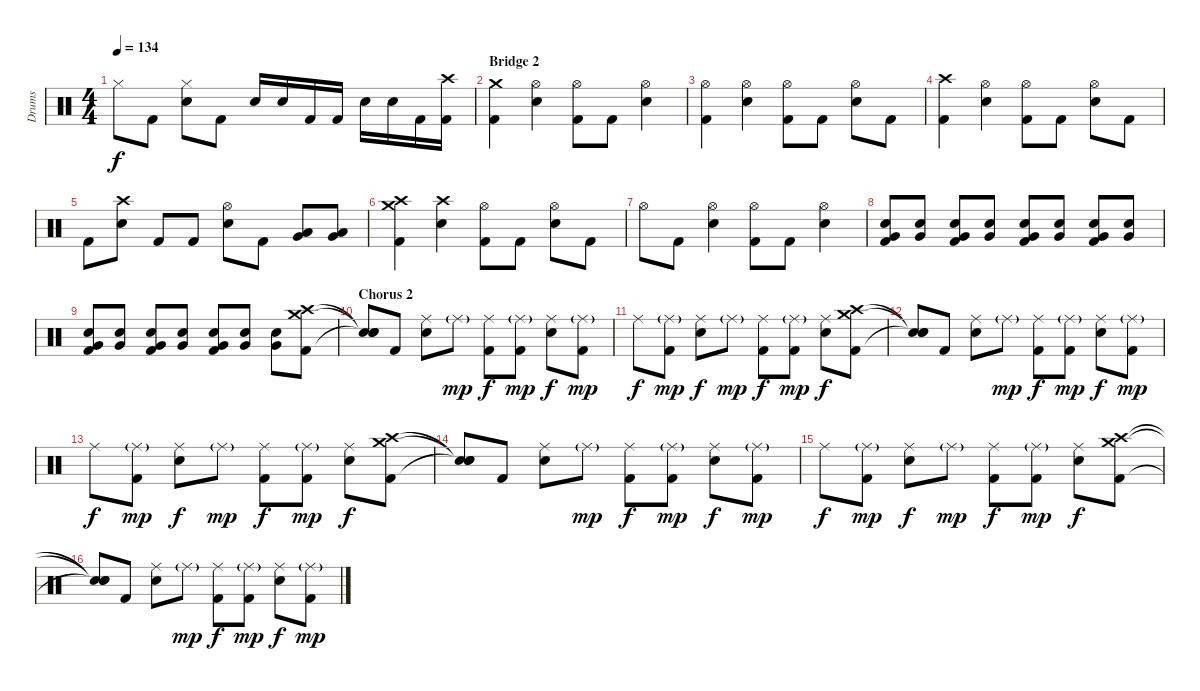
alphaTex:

\track ("Drums" "Drums") {instrument percussion}
\staff {score}
\articulation defaults
\ts (4 4)
\tempo 134
\clef neutral
\ks c "Hi-Hat (closed)".8{dy f} "Kick (hit) 2".8
("Hi-Hat (closed)" "Snare (hit) 2").8 "Kick (hit) 2".8 "Snare (hit) 2".16 "Snare (hit) 2".16 "Kick (hit) 2".16 "Kick (hit) 2".16 "Snare (hit) 2".16 "Snare (hit) 2".16 "Kick (hit) 2".16 ("Crash high (hit)" "Kick (hit) 2").16 |
\section ("" "Bridge 2")
("Crash medium (hit)" "Kick (hit) 2").4 ("Hi-Hat (open)" "Snare (hit) 2").4 ("Hi-Hat (open)" "Kick (hit) 2").8 "Kick (hit) 2".8 ("Hi-Hat (open)" "Snare (hit) 2").4 |
("Hi-Hat (open)" "Kick (hit) 2").4 ("Hi-Hat (open)" "Snare (hit) 2").4 ("Hi-Hat (open)" "Kick (hit) 2").8 "Kick (hit) 2".8 ("Hi-Hat (open)" "Snare (hit) 2").8 "Kick (hit) 2".8 |
("Crash high (hit)" "Kick (hit) 2").4 ("Hi-Hat (open)" "Snare (hit) 2").4 ("Hi-Hat (open)" "Kick (hit) 2").8 "Kick (hit) 2".8 ("Hi-Hat (open)" "Snare (hit) 2").8 "Kick (hit) 2".8 |
"Kick (hit) 2".8 ("Crash high (hit)" "Snare (hit) 2").8 "Kick (hit) 2".8 "Kick (hit) 2".8 ("Hi-Hat (open)" "Snare (hit) 2").8 "Kick (hit) 2".8 ("Low Tom (hit)" "Very Low Tom (hit)").8 ("Low Tom (hit)" "Very Low Tom (hit)").8 |
("Crash medium (hit)" "Crash high (hit)" "Kick (hit) 2").4 ("Crash high (hit)" "Snare (hit) 2").4 ("Hi-Hat (open)" "Kick (hit) 2").8 "Kick (hit) 2".8 ("Hi-Hat (open)" "Snare (hit) 2").8 "Kick (hit) 2".8 |
"Hi-Hat (open)".8 "Kick (hit) 2".8 ("Hi-Hat (open)" "Snare (hit) 2").4 ("Hi-Hat (open)" "Kick (hit) 2").8 "Kick (hit) 2".8 ("Hi-Hat (open)" "Snare (hit) 2").4 |
("Very Low Tom (hit)" "Snare (hit) 2" "Kick (hit) 2").8{volume 10} ("Very Low Tom (hit)" "Snare (hit) 2").8{volume 14} ("Very Low Tom (hit)" "Snare (hit) 2" "Kick (hit) 2").8 ("Very Low Tom (hit)" "Snare (hit) 2").8 ("Very Low Tom (hit)" "Snare (hit) 2" "Kick (hit) 2").8 ("Very Low Tom (hit)" "Snare (hit) 2").8 ("Very Low Tom (hit)" "Snare (hit) 2" "Kick (hit) 2").8 ("Very Low Tom (hit)" "Snare (hit) 2").8 |
("Very Low Tom (hit)" "Snare (hit) 2" "Kick (hit) 2").8 ("Very Low Tom (hit)" "Snare (hit) 2").8 ("Very Low Tom (hit)" "Snare (hit) 2" "Kick (hit) 2").8 ("Very Low Tom (hit)" "Snare (hit) 2").8 ("Very Low Tom (hit)" "Snare (hit) 2" "Kick (hit) 2").8 ("Very Low Tom (hit)" "Snare (hit) 2").8 ("Very Low Tom (hit)" "Snare (hit) 2").8 ("Crash medium (hit)" "Crash high (hit)" "Kick (hit) 2").8 |
\section ("" "Chorus 2")
("Snare (hit)"{t} "Snare (hit)"{t} "Snare (hit)"{t}).8 "Kick (hit) 2".8 ("Ride (middle)" "Snare (hit) 2").8 "Ride (middle)"{g}.8{dy mp} ("Ride (middle)" "Kick (hit) 2").8{dy f} ("Ride (middle)"{g} "Kick (hit) 2").8{dy mp} ("Ride (middle)" "Snare (hit) 2").8{dy f} ("Ride (middle)"{g} "Kick (hit) 2").8{dy mp} |
"Ride (middle)".8{dy f} ("Ride (middle)"{g} "Kick (hit) 2").8{dy mp} ("Ride (middle)" "Snare (hit) 2").8{dy f} "Ride (middle)"{g}.8{dy mp} ("Ride (middle)" "Kick (hit) 2").8{dy f} ("Ride (middle)"{g} "Kick (hit) 2").8{dy mp} ("Ride (middle)" "Snare (hit) 2").8{dy f} ("Crash medium (hit)" "Crash high (hit)" "Kick (hit) 2").8 |
("Snare (hit)"{t} "Snare (hit)"{t} "Snare (hit)"{t}).8 "Kick (hit) 2".8 ("Ride (middle)" "Snare (hit) 2").8 "Ride (middle)"{g}.8{dy mp} ("Ride (middle)" "Kick (hit) 2").8{dy f} ("Ride (middle)"{g} "Kick (hit) 2").8{dy mp} ("Ride (middle)" "Snare (hit) 2").8{dy f} ("Ride (middle)"{g} "Kick (hit) 2").8{dy mp} |
"Ride (middle)".8{dy f} ("Ride (middle)"{g} "Kick (hit) 2").8{dy mp} ("Ride (middle)" "Snare (hit) 2").8{dy f} "Ride (middle)"{g}.8{dy mp} ("Ride (middle)" "Kick (hit) 2").8{dy f} ("Ride (middle)"{g} "Kick (hit) 2").8{dy mp} ("Ride (middle)" "Snare (hit) 2").8{dy f} ("Crash medium (hit)" "Crash high (hit)" "Kick (hit) 2").8 |
("Snare (hit)"{t} "Snare (hit)"{t} "Snare (hit)"{t}).8 "Kick (hit) 2".8 ("Ride (middle)" "Snare (hit) 2").8 "Ride (middle)"{g}.8{dy mp} ("Ride (middle)" "Kick (hit) 2").8{dy f} ("Ride (middle)"{g} "Kick (hit) 2").8{dy mp} ("Ride (middle)" "Snare (hit) 2").8{dy f} ("Ride (middle)"{g} "Kick (hit) 2").8{dy mp} |
"Ride (middle)".8{dy f} ("Ride (middle)"{g} "Kick (hit) 2").8{dy mp} ("Ride (middle)" "Snare (hit) 2").8{dy f} "Ride (middle)"{g}.8{dy mp} ("Ride (middle)" "Kick (hit) 2").8{dy f} ("Ride (middle)"{g} "Kick (hit) 2").8{dy mp} ("Ride (middle)" "Snare (hit) 2").8{dy f} ("Crash medium (hit)" "Crash high (hit)" "Kick (hit) 2").8 |
("Snare (hit)"{t} "Snare (hit)"{t} "Snare (hit)"{t}).8 "Kick (hit) 2".8 ("Ride (middle)" "Snare (hit) 2").8 "Ride (middle)"{g}.8{dy mp} ("Ride (middle)" "Kick (hit) 2").8{dy f} ("Ride (middle)"{g} "Kick (hit) 2").8{dy mp} ("Ride (middle)" "Snare (hit) 2").8{dy f} ("Ride (middle)"{g} "Kick (hit) 2").8{dy mp}
